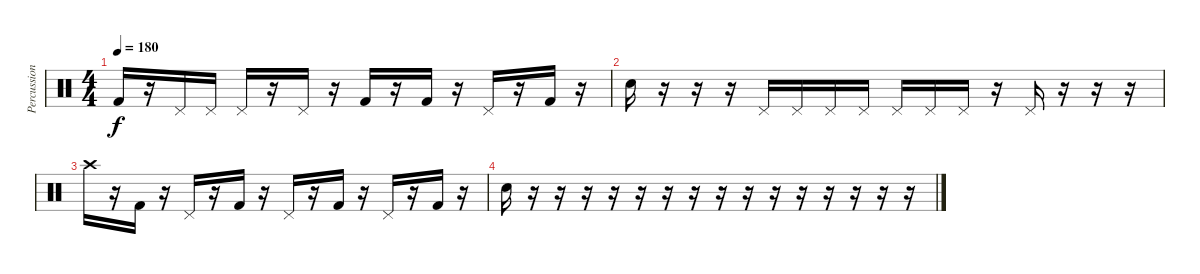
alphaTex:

\track ("Percussion" "Percussion") {instrument percussion}
\staff {score}
\articulation defaults
\ts (4 4)
\tempo 180
\clef neutral
\ks c "Kick (hit) 2".16{dy f}
r.16 "Pedal Hi-Hat (hit)".16 "Pedal Hi-Hat (hit)".16 "Pedal Hi-Hat (hit)".16 r.16 "Pedal Hi-Hat (hit)".16 r.16 "Kick (hit) 2".16 r.16 "Kick (hit) 2".16 r.16 "Pedal Hi-Hat (hit)".16 r.16 "Kick (hit) 2".16 r.16 |
"Electric Snare (hit)".16 r.16 r.16 r.16 "Pedal Hi-Hat (hit)".16 "Pedal Hi-Hat (hit)".16 "Pedal Hi-Hat (hit)".16 "Pedal Hi-Hat (hit)".16 "Pedal Hi-Hat (hit)".16 "Pedal Hi-Hat (hit)".16 "Pedal Hi-Hat (hit)".16 r.16 "Pedal Hi-Hat (hit)".16 r.16 r.16 r.16 |
"Crash high (hit)".16 r.16 "Kick (hit) 2".16 r.16 "Pedal Hi-Hat (hit)".16 r.16 "Kick (hit) 2".16 r.16 "Pedal Hi-Hat (hit)".16 r.16 "Kick (hit) 2".16 r.16 "Pedal Hi-Hat (hit)".16 r.16 "Kick (hit) 2".16 r.16 |
"Electric Snare (hit)".16 r.16 r.16 r.16 r.16 r.16 r.16 r.16 r.16 r.16 r.16 r.16 r.16 r.16 r.16 r.16
